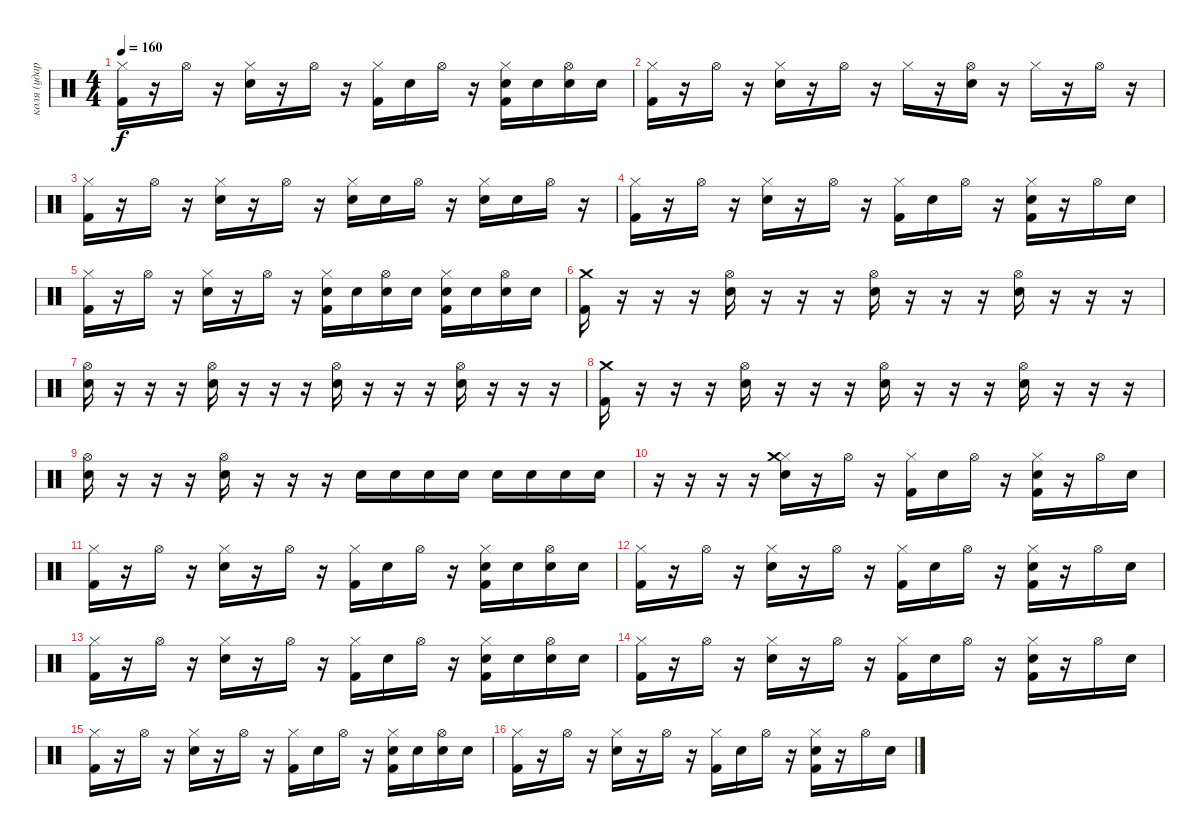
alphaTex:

\track ("коля (ударные)" "коля (удар") {instrument percussion}
\staff {score}
\articulation defaults
\ts (4 4)
\tempo 160
\clef neutral
\ks c
("Kick (hit) 2" "Hi-Hat (closed)").16{dy f} r.16 "Hi-Hat (open)".16 r.16 ("Snare (hit) 2" "Hi-Hat (closed)").16 r.16 "Hi-Hat (open)".16 r.16 ("Kick (hit) 2" "Hi-Hat (closed)").16 "Snare (hit) 2".16 "Hi-Hat (open)".16 r.16 ("Snare (hit) 2" "Kick (hit) 2" "Hi-Hat (closed)").16 "Snare (hit) 2".16 ("Snare (hit) 2" "Hi-Hat (open)").16 "Snare (hit) 2".16 |
("Kick (hit) 2" "Hi-Hat (closed)").16 r.16 "Hi-Hat (open)".16 r.16 ("Snare (hit) 2" "Hi-Hat (closed)").16 r.16 "Hi-Hat (open)".16 r.16 "Hi-Hat (closed)".16 r.16 ("Snare (hit) 2" "Hi-Hat (open)").16 r.16 "Hi-Hat (closed)".16 r.16 "Hi-Hat (open)".16 r.16 |
("Kick (hit) 2" "Hi-Hat (closed)").16 r.16 "Hi-Hat (open)".16 r.16 ("Snare (hit) 2" "Hi-Hat (closed)").16 r.16 "Hi-Hat (open)".16 r.16 ("Snare (hit) 2" "Hi-Hat (closed)").16 "Snare (hit) 2".16 "Hi-Hat (open)".16 r.16 ("Snare (hit) 2" "Hi-Hat (closed)").16 "Snare (hit) 2".16 "Hi-Hat (open)".16 r.16 |
("Kick (hit) 2" "Hi-Hat (closed)").16 r.16 "Hi-Hat (open)".16 r.16 ("Snare (hit) 2" "Hi-Hat (closed)").16 r.16 "Hi-Hat (open)".16 r.16 ("Kick (hit) 2" "Hi-Hat (closed)").16 "Snare (hit) 2".16 "Hi-Hat (open)".16 r.16 ("Snare (hit) 2" "Kick (hit) 2" "Hi-Hat (closed)").16 r.16 "Hi-Hat (open)".16 "Snare (hit) 2".16 |
("Kick (hit) 2" "Hi-Hat (closed)").16 r.16 "Hi-Hat (open)".16 r.16 ("Snare (hit) 2" "Hi-Hat (closed)").16 r.16 "Hi-Hat (open)".16 r.16 ("Snare (hit) 2" "Kick (hit) 2" "Hi-Hat (closed)").16 "Snare (hit) 2".16 ("Snare (hit) 2" "Hi-Hat (open)").16 "Snare (hit) 2".16 ("Snare (hit) 2" "Kick (hit) 2" "Hi-Hat (closed)").16 "Snare (hit) 2".16 ("Snare (hit) 2" "Hi-Hat (open)").16 "Snare (hit) 2".16 |
("Kick (hit) 2" "Crash medium (hit)").16 r.16 r.16 r.16 ("Snare (hit) 2" "Hi-Hat (open)").16 r.16 r.16 r.16 ("Snare (hit) 2" "Hi-Hat (open)").16 r.16 r.16 r.16 ("Snare (hit) 2" "Hi-Hat (open)").16 r.16 r.16 r.16 |
("Snare (hit) 2" "Hi-Hat (open)").16 r.16 r.16 r.16 ("Snare (hit) 2" "Hi-Hat (open)").16 r.16 r.16 r.16 ("Snare (hit) 2" "Hi-Hat (open)").16 r.16 r.16 r.16 ("Snare (hit) 2" "Hi-Hat (open)").16 r.16 r.16 r.16 |
("Kick (hit) 2" "Crash medium (hit)").16 r.16 r.16 r.16 ("Snare (hit) 2" "Hi-Hat (open)").16 r.16 r.16 r.16 ("Snare (hit) 2" "Hi-Hat (open)").16 r.16 r.16 r.16 ("Snare (hit) 2" "Hi-Hat (open)").16 r.16 r.16 r.16 |
("Snare (hit) 2" "Hi-Hat (open)").16 r.16 r.16 r.16 ("Snare (hit) 2" "Hi-Hat (open)").16 r.16 r.16 r.16 "Snare (hit) 2".16 "Snare (hit) 2".16 "Snare (hit) 2".16 "Snare (hit) 2".16 "Snare (hit) 2".16 "Snare (hit) 2".16 "Snare (hit) 2".16 "Snare (hit) 2".16 |
r.16 r.16 r.16 r.16 ("Snare (hit) 2" "Hi-Hat (closed)" "Crash medium (hit)").16 r.16 "Hi-Hat (open)".16 r.16 ("Kick (hit) 2" "Hi-Hat (closed)").16 "Snare (hit) 2".16 "Hi-Hat (open)".16 r.16 ("Snare (hit) 2" "Kick (hit) 2" "Hi-Hat (closed)").16 r.16 "Hi-Hat (open)".16 "Snare (hit) 2".16 |
("Kick (hit) 2" "Hi-Hat (closed)").16 r.16 "Hi-Hat (open)".16 r.16 ("Snare (hit) 2" "Hi-Hat (closed)").16 r.16 "Hi-Hat (open)".16 r.16 ("Kick (hit) 2" "Hi-Hat (closed)").16 "Snare (hit) 2".16 "Hi-Hat (open)".16 r.16 ("Snare (hit) 2" "Kick (hit) 2" "Hi-Hat (closed)").16 "Snare (hit) 2".16 ("Snare (hit) 2" "Hi-Hat (open)").16 "Snare (hit) 2".16 |
("Kick (hit) 2" "Hi-Hat (closed)").16 r.16 "Hi-Hat (open)".16 r.16 ("Snare (hit) 2" "Hi-Hat (closed)").16 r.16 "Hi-Hat (open)".16 r.16 ("Kick (hit) 2" "Hi-Hat (closed)").16 "Snare (hit) 2".16 "Hi-Hat (open)".16 r.16 ("Snare (hit) 2" "Kick (hit) 2" "Hi-Hat (closed)").16 r.16 "Hi-Hat (open)".16 "Snare (hit) 2".16 |
("Kick (hit) 2" "Hi-Hat (closed)").16 r.16 "Hi-Hat (open)".16 r.16 ("Snare (hit) 2" "Hi-Hat (closed)").16 r.16 "Hi-Hat (open)".16 r.16 ("Kick (hit) 2" "Hi-Hat (closed)").16 "Snare (hit) 2".16 "Hi-Hat (open)".16 r.16 ("Snare (hit) 2" "Kick (hit) 2" "Hi-Hat (closed)").16 "Snare (hit) 2".16 ("Snare (hit) 2" "Hi-Hat (open)").16 "Snare (hit) 2".16 |
("Kick (hit) 2" "Hi-Hat (closed)").16 r.16 "Hi-Hat (open)".16 r.16 ("Snare (hit) 2" "Hi-Hat (closed)").16 r.16 "Hi-Hat (open)".16 r.16 ("Kick (hit) 2" "Hi-Hat (closed)").16 "Snare (hit) 2".16 "Hi-Hat (open)".16 r.16 ("Snare (hit) 2" "Kick (hit) 2" "Hi-Hat (closed)").16 r.16 "Hi-Hat (open)".16 "Snare (hit) 2".16 |
("Kick (hit) 2" "Hi-Hat (closed)").16 r.16 "Hi-Hat (open)".16 r.16 ("Snare (hit) 2" "Hi-Hat (closed)").16 r.16 "Hi-Hat (open)".16 r.16 ("Kick (hit) 2" "Hi-Hat (closed)").16 "Snare (hit) 2".16 "Hi-Hat (open)".16 r.16 ("Snare (hit) 2" "Kick (hit) 2" "Hi-Hat (closed)").16 "Snare (hit) 2".16 ("Snare (hit) 2" "Hi-Hat (open)").16 "Snare (hit) 2".16 |
("Kick (hit) 2" "Hi-Hat (closed)").16 r.16 "Hi-Hat (open)".16 r.16 ("Snare (hit) 2" "Hi-Hat (closed)").16 r.16 "Hi-Hat (open)".16 r.16 ("Kick (hit) 2" "Hi-Hat (closed)").16 "Snare (hit) 2".16 "Hi-Hat (open)".16 r.16 ("Snare (hit) 2" "Kick (hit) 2" "Hi-Hat (closed)").16 r.16 "Hi-Hat (open)".16 "Snare (hit) 2".16
